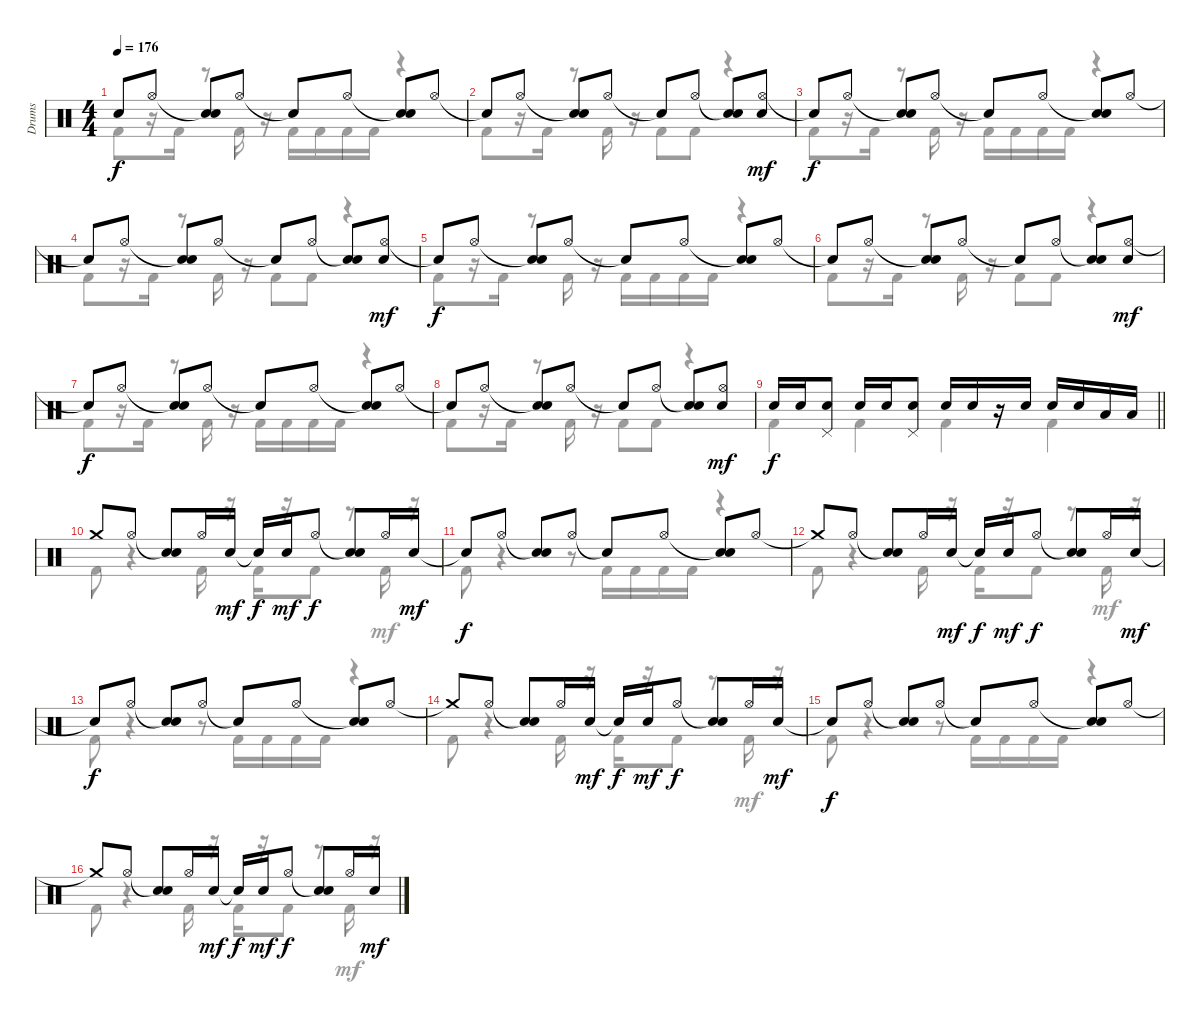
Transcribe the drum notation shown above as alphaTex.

\track ("Drums" "Drums") {instrument percussion}
\staff {score}
\articulation defaults
\voice
\ts (4 4)
\tempo 176
\clef neutral
\ks c "Snare (hit)"{t}.8{dy f} "Hi-Hat (open)".8
("Snare (hit)"{t} "Snare (hit) 2").8 "Hi-Hat (open)".8 "Snare (hit)"{t}.8 "Hi-Hat (open)".8 ("Snare (hit)"{t} "Snare (hit) 2").8 "Hi-Hat (open)".8 |
"Snare (hit)"{t}.8 "Hi-Hat (open)".8 ("Snare (hit)"{t} "Snare (hit) 2").8 "Hi-Hat (open)".8 "Snare (hit)"{t}.8 "Hi-Hat (open)".8 ("Snare (hit)"{t} "Snare (hit) 2").8 ("Hi-Hat (open)" "Electric Snare (hit)").8{dy mf} |
"Snare (hit)"{t}.8{dy f} "Hi-Hat (open)".8 ("Snare (hit)"{t} "Snare (hit) 2").8 "Hi-Hat (open)".8 "Snare (hit)"{t}.8 "Hi-Hat (open)".8 ("Snare (hit)"{t} "Snare (hit) 2").8 "Hi-Hat (open)".8 |
"Snare (hit)"{t}.8 "Hi-Hat (open)".8 ("Snare (hit)"{t} "Snare (hit) 2").8 "Hi-Hat (open)".8 "Snare (hit)"{t}.8 "Hi-Hat (open)".8 ("Snare (hit)"{t} "Snare (hit) 2").8 ("Hi-Hat (open)" "Electric Snare (hit)").8{dy mf} |
"Snare (hit)"{t}.8{dy f} "Hi-Hat (open)".8 ("Snare (hit)"{t} "Snare (hit) 2").8 "Hi-Hat (open)".8 "Snare (hit)"{t}.8 "Hi-Hat (open)".8 ("Snare (hit)"{t} "Snare (hit) 2").8 "Hi-Hat (open)".8 |
"Snare (hit)"{t}.8 "Hi-Hat (open)".8 ("Snare (hit)"{t} "Snare (hit) 2").8 "Hi-Hat (open)".8 "Snare (hit)"{t}.8 "Hi-Hat (open)".8 ("Snare (hit)"{t} "Snare (hit) 2").8 ("Hi-Hat (open)" "Electric Snare (hit)").8{dy mf} |
"Snare (hit)"{t}.8{dy f} "Hi-Hat (open)".8 ("Snare (hit)"{t} "Snare (hit) 2").8 "Hi-Hat (open)".8 "Snare (hit)"{t}.8 "Hi-Hat (open)".8 ("Snare (hit)"{t} "Snare (hit) 2").8 "Hi-Hat (open)".8 |
"Snare (hit)"{t}.8 "Hi-Hat (open)".8 ("Snare (hit)"{t} "Snare (hit) 2").8 "Hi-Hat (open)".8 "Snare (hit)"{t}.8 "Hi-Hat (open)".8 ("Snare (hit)"{t} "Snare (hit) 2").8 ("Hi-Hat (open)" "Electric Snare (hit)").8{dy mf} |
\barLineRight lightlight "Snare (hit) 2".16{dy f} "Snare (hit) 2".16
("Pedal Hi-Hat (hit)" "Snare (hit) 2").8 "Snare (hit) 2".16 "Snare (hit) 2".16 ("Pedal Hi-Hat (hit)" "Snare (hit) 2").8 "Snare (hit) 2".16 "Snare (hit) 2".16 r.16 "Snare (hit) 2".16 "Snare (hit) 2".16 "Snare (hit) 2".16 "Low Tom (hit)".16 "Low Tom (hit)".16 |
"Crash medium (hit)".8 "Hi-Hat (open)".8 ("Snare (hit)"{t} "Snare (hit) 2").8 "Hi-Hat (open)".16 "Snare (hit) 2".16{dy mf} "Snare (hit)"{t}.16{dy f} "Snare (hit) 2".16{dy mf} "Hi-Hat (open)".8{dy f} ("Snare (hit)"{t} "Snare (hit) 2").8 "Hi-Hat (open)".16 "Snare (hit) 2".16{dy mf} |
"Snare (hit)"{t}.8{dy f} "Hi-Hat (open)".8 ("Snare (hit)"{t} "Snare (hit) 2").8 "Hi-Hat (open)".8 "Snare (hit)"{t}.8 "Hi-Hat (open)".8 ("Snare (hit)"{t} "Snare (hit) 2").8 "Hi-Hat (open)".8 |
"Crash medium (hit)"{t}.8 "Hi-Hat (open)".8 ("Snare (hit)"{t} "Snare (hit) 2").8 "Hi-Hat (open)".16 "Snare (hit) 2".16{dy mf} "Snare (hit)"{t}.16{dy f} "Snare (hit) 2".16{dy mf} "Hi-Hat (open)".8{dy f} ("Snare (hit)"{t} "Snare (hit) 2").8 "Hi-Hat (open)".16 "Snare (hit) 2".16{dy mf} |
"Snare (hit)"{t}.8{dy f} "Hi-Hat (open)".8 ("Snare (hit)"{t} "Snare (hit) 2").8 "Hi-Hat (open)".8 "Snare (hit)"{t}.8 "Hi-Hat (open)".8 ("Snare (hit)"{t} "Snare (hit) 2").8 "Hi-Hat (open)".8 |
"Crash medium (hit)"{t}.8 "Hi-Hat (open)".8 ("Snare (hit)"{t} "Snare (hit) 2").8 "Hi-Hat (open)".16 "Snare (hit) 2".16{dy mf} "Snare (hit)"{t}.16{dy f} "Snare (hit) 2".16{dy mf} "Hi-Hat (open)".8{dy f} ("Snare (hit)"{t} "Snare (hit) 2").8 "Hi-Hat (open)".16 "Snare (hit) 2".16{dy mf} |
"Snare (hit)"{t}.8{dy f} "Hi-Hat (open)".8 ("Snare (hit)"{t} "Snare (hit) 2").8 "Hi-Hat (open)".8 "Snare (hit)"{t}.8 "Hi-Hat (open)".8 ("Snare (hit)"{t} "Snare (hit) 2").8 "Hi-Hat (open)".8 |
"Crash medium (hit)"{t}.8 "Hi-Hat (open)".8 ("Snare (hit)"{t} "Snare (hit) 2").8 "Hi-Hat (open)".16 "Snare (hit) 2".16{dy mf} "Snare (hit)"{t}.16{dy f} "Snare (hit) 2".16{dy mf} "Hi-Hat (open)".8{dy f} ("Snare (hit)"{t} "Snare (hit) 2").8 "Hi-Hat (open)".16 "Snare (hit) 2".16{dy mf}
\voice
\clef neutral
\ottava regular
\simile none
\ks c "Kick (hit) 2".8{dy f}
r.16 "Kick (hit) 2".16 r.8 "Kick (hit) 2".16 r.16 "Kick (hit) 2".16 "Kick (hit) 2".16 "Kick (hit) 2".16 "Kick (hit) 2".16 r.4 |
"Kick (hit) 2".8 r.16 "Kick (hit) 2".16 r.8 "Kick (hit) 2".16 r.16 "Kick (hit) 2".8 "Kick (hit) 2".8 r.4 |
"Kick (hit) 2".8 r.16 "Kick (hit) 2".16 r.8 "Kick (hit) 2".16 r.16 "Kick (hit) 2".16 "Kick (hit) 2".16 "Kick (hit) 2".16 "Kick (hit) 2".16 r.4 |
"Kick (hit) 2".8 r.16 "Kick (hit) 2".16 r.8 "Kick (hit) 2".16 r.16 "Kick (hit) 2".8 "Kick (hit) 2".8 r.4 |
"Kick (hit) 2".8 r.16 "Kick (hit) 2".16 r.8 "Kick (hit) 2".16 r.16 "Kick (hit) 2".16 "Kick (hit) 2".16 "Kick (hit) 2".16 "Kick (hit) 2".16 r.4 |
"Kick (hit) 2".8 r.16 "Kick (hit) 2".16 r.8 "Kick (hit) 2".16 r.16 "Kick (hit) 2".8 "Kick (hit) 2".8 r.4 |
"Kick (hit) 2".8 r.16 "Kick (hit) 2".16 r.8 "Kick (hit) 2".16 r.16 "Kick (hit) 2".16 "Kick (hit) 2".16 "Kick (hit) 2".16 "Kick (hit) 2".16 r.4 |
"Kick (hit) 2".8 r.16 "Kick (hit) 2".16 r.8 "Kick (hit) 2".16 r.16 "Kick (hit) 2".8 "Kick (hit) 2".8 r.4 |
\barLineRight lightlight "Kick (hit) 2".4 "Kick (hit) 2".4 "Kick (hit) 2".4 "Kick (hit) 2".4
|
"Kick (hit) 2".8 r.4 "Kick (hit) 2".16 r.16 "Kick (hit) 2".16 r.16 "Kick (hit) 2".8 r.8 "Kick (hit) 2".16{dy mf} r.16 |
"Kick (hit) 2".8{dy f} r.4 r.8 "Kick (hit) 2".16 "Kick (hit) 2".16 "Kick (hit) 2".16 "Kick (hit) 2".16 r.4 |
"Kick (hit) 2".8 r.4 "Kick (hit) 2".16 r.16 "Kick (hit) 2".16 r.16 "Kick (hit) 2".8 r.8 "Kick (hit) 2".16{dy mf} r.16 |
"Kick (hit) 2".8{dy f} r.4 r.8 "Kick (hit) 2".16 "Kick (hit) 2".16 "Kick (hit) 2".16 "Kick (hit) 2".16 r.4 |
"Kick (hit) 2".8 r.4 "Kick (hit) 2".16 r.16 "Kick (hit) 2".16 r.16 "Kick (hit) 2".8 r.8 "Kick (hit) 2".16{dy mf} r.16 |
"Kick (hit) 2".8{dy f} r.4 r.8 "Kick (hit) 2".16 "Kick (hit) 2".16 "Kick (hit) 2".16 "Kick (hit) 2".16 r.4 |
"Kick (hit) 2".8 r.4 "Kick (hit) 2".16 r.16 "Kick (hit) 2".16 r.16 "Kick (hit) 2".8 r.8 "Kick (hit) 2".16{dy mf} r.16
